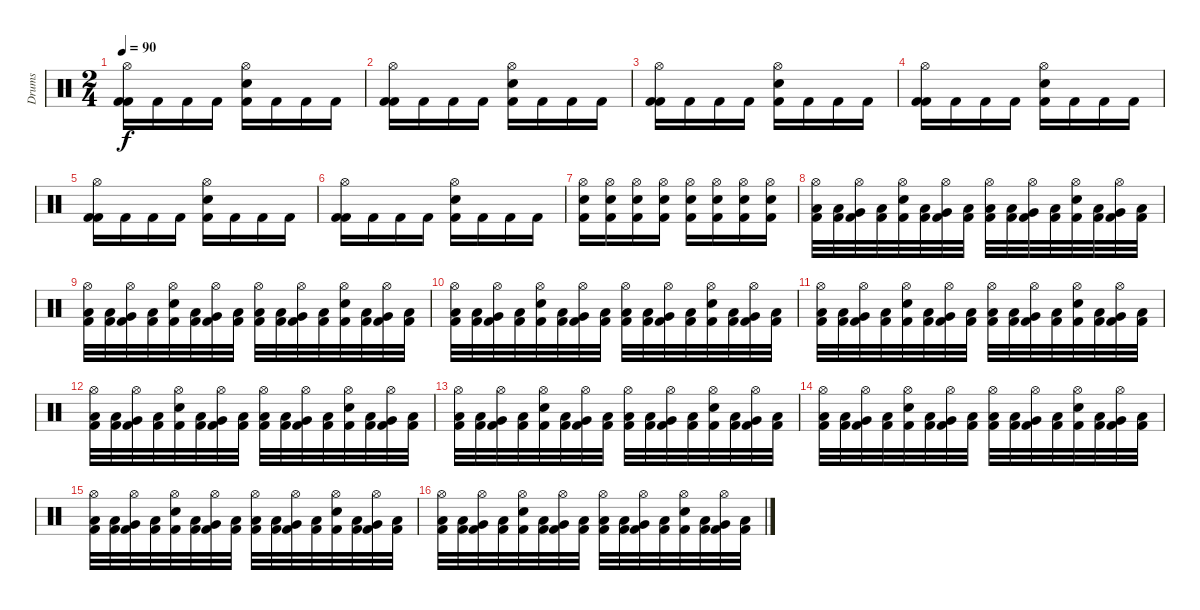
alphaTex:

\track ("Drums" "Drums") {instrument percussion}
\staff {score}
\articulation defaults
\ts (2 4)
\tempo 90
\clef neutral
\ks c
("Hi-Hat (open)" "Kick (hit) 2" "Kick (hit) 2").16{dy f} "Kick (hit) 2".16 "Kick (hit) 2".16 "Kick (hit) 2".16 ("Hi-Hat (open)" "Electric Snare (hit)" "Kick (hit) 2").16 "Kick (hit) 2".16 "Kick (hit) 2".16 "Kick (hit) 2".16 |
("Hi-Hat (open)" "Kick (hit) 2" "Kick (hit) 2").16 "Kick (hit) 2".16 "Kick (hit) 2".16 "Kick (hit) 2".16 ("Hi-Hat (open)" "Electric Snare (hit)" "Kick (hit) 2").16 "Kick (hit) 2".16 "Kick (hit) 2".16 "Kick (hit) 2".16 |
("Hi-Hat (open)" "Kick (hit) 2" "Kick (hit) 2").16 "Kick (hit) 2".16 "Kick (hit) 2".16 "Kick (hit) 2".16 ("Hi-Hat (open)" "Electric Snare (hit)" "Kick (hit) 2").16 "Kick (hit) 2".16 "Kick (hit) 2".16 "Kick (hit) 2".16 |
("Hi-Hat (open)" "Kick (hit) 2" "Kick (hit) 2").16 "Kick (hit) 2".16 "Kick (hit) 2".16 "Kick (hit) 2".16 ("Hi-Hat (open)" "Electric Snare (hit)" "Kick (hit) 2").16 "Kick (hit) 2".16 "Kick (hit) 2".16 "Kick (hit) 2".16 |
("Hi-Hat (open)" "Kick (hit) 2" "Kick (hit) 2").16 "Kick (hit) 2".16 "Kick (hit) 2".16 "Kick (hit) 2".16 ("Hi-Hat (open)" "Electric Snare (hit)" "Kick (hit) 2").16 "Kick (hit) 2".16 "Kick (hit) 2".16 "Kick (hit) 2".16 |
("Hi-Hat (open)" "Kick (hit) 2" "Kick (hit) 2").16 "Kick (hit) 2".16 "Kick (hit) 2".16 "Kick (hit) 2".16 ("Hi-Hat (open)" "Electric Snare (hit)" "Kick (hit) 2").16 "Kick (hit) 2".16 "Kick (hit) 2".16 "Kick (hit) 2".16 |
("Hi-Hat (open)" "Electric Snare (hit)" "Kick (hit) 2").16 ("Hi-Hat (open)" "Electric Snare (hit)" "Kick (hit) 2").16 ("Hi-Hat (open)" "Electric Snare (hit)" "Kick (hit) 2").16 ("Hi-Hat (open)" "Electric Snare (hit)" "Kick (hit) 2").16 ("Hi-Hat (open)" "Electric Snare (hit)" "Kick (hit) 2").16 ("Hi-Hat (open)" "Electric Snare (hit)" "Kick (hit) 2").16 ("Hi-Hat (open)" "Electric Snare (hit)" "Kick (hit) 2").16 ("Hi-Hat (open)" "Electric Snare (hit)" "Kick (hit) 2").16 |
("Hi-Hat (open)" "Low Floor Tom (hit)" "Kick (hit) 2").32 ("Low Tom (hit)" "Kick (hit) 2").32 ("Hi-Hat (open)" "Very Low Tom (hit)" "Kick (hit) 2").32 ("Low Floor Tom (hit)" "Kick (hit) 2").32 ("Hi-Hat (open)" "Snare (hit) 2" "Kick (hit) 2").32 ("Low Tom (hit)" "Kick (hit) 2").32 ("Hi-Hat (open)" "Very Low Tom (hit)" "Kick (hit) 2").32 ("Low Floor Tom (hit)" "Kick (hit) 2").32 ("Hi-Hat (open)" "Low Floor Tom (hit)" "Kick (hit) 2").32 ("Low Tom (hit)" "Kick (hit) 2").32 ("Hi-Hat (open)" "Very Low Tom (hit)" "Kick (hit) 2").32 ("Low Floor Tom (hit)" "Kick (hit) 2").32 ("Hi-Hat (open)" "Snare (hit) 2" "Kick (hit) 2").32 ("Low Tom (hit)" "Kick (hit) 2").32 ("Hi-Hat (open)" "Very Low Tom (hit)" "Kick (hit) 2").32 ("Low Floor Tom (hit)" "Kick (hit) 2").32 |
("Hi-Hat (open)" "Low Floor Tom (hit)" "Kick (hit) 2").32 ("Low Tom (hit)" "Kick (hit) 2").32 ("Hi-Hat (open)" "Very Low Tom (hit)" "Kick (hit) 2").32 ("Low Floor Tom (hit)" "Kick (hit) 2").32 ("Hi-Hat (open)" "Snare (hit) 2" "Kick (hit) 2").32 ("Low Tom (hit)" "Kick (hit) 2").32 ("Hi-Hat (open)" "Very Low Tom (hit)" "Kick (hit) 2").32 ("Low Floor Tom (hit)" "Kick (hit) 2").32 ("Hi-Hat (open)" "Low Floor Tom (hit)" "Kick (hit) 2").32 ("Low Tom (hit)" "Kick (hit) 2").32 ("Hi-Hat (open)" "Very Low Tom (hit)" "Kick (hit) 2").32 ("Low Floor Tom (hit)" "Kick (hit) 2").32 ("Hi-Hat (open)" "Snare (hit) 2" "Kick (hit) 2").32 ("Low Tom (hit)" "Kick (hit) 2").32 ("Hi-Hat (open)" "Very Low Tom (hit)" "Kick (hit) 2").32 ("Low Floor Tom (hit)" "Kick (hit) 2").32 |
("Hi-Hat (open)" "Low Floor Tom (hit)" "Kick (hit) 2").32 ("Low Tom (hit)" "Kick (hit) 2").32 ("Hi-Hat (open)" "Very Low Tom (hit)" "Kick (hit) 2").32 ("Low Floor Tom (hit)" "Kick (hit) 2").32 ("Hi-Hat (open)" "Snare (hit) 2" "Kick (hit) 2").32 ("Low Tom (hit)" "Kick (hit) 2").32 ("Hi-Hat (open)" "Very Low Tom (hit)" "Kick (hit) 2").32 ("Low Floor Tom (hit)" "Kick (hit) 2").32 ("Hi-Hat (open)" "Low Floor Tom (hit)" "Kick (hit) 2").32 ("Low Tom (hit)" "Kick (hit) 2").32 ("Hi-Hat (open)" "Very Low Tom (hit)" "Kick (hit) 2").32 ("Low Floor Tom (hit)" "Kick (hit) 2").32 ("Hi-Hat (open)" "Snare (hit) 2" "Kick (hit) 2").32 ("Low Tom (hit)" "Kick (hit) 2").32 ("Hi-Hat (open)" "Very Low Tom (hit)" "Kick (hit) 2").32 ("Low Floor Tom (hit)" "Kick (hit) 2").32 |
("Hi-Hat (open)" "Low Floor Tom (hit)" "Kick (hit) 2").32 ("Low Tom (hit)" "Kick (hit) 2").32 ("Hi-Hat (open)" "Very Low Tom (hit)" "Kick (hit) 2").32 ("Low Floor Tom (hit)" "Kick (hit) 2").32 ("Hi-Hat (open)" "Snare (hit) 2" "Kick (hit) 2").32 ("Low Tom (hit)" "Kick (hit) 2").32 ("Hi-Hat (open)" "Very Low Tom (hit)" "Kick (hit) 2").32 ("Low Floor Tom (hit)" "Kick (hit) 2").32 ("Hi-Hat (open)" "Low Floor Tom (hit)" "Kick (hit) 2").32 ("Low Tom (hit)" "Kick (hit) 2").32 ("Hi-Hat (open)" "Very Low Tom (hit)" "Kick (hit) 2").32 ("Low Floor Tom (hit)" "Kick (hit) 2").32 ("Hi-Hat (open)" "Snare (hit) 2" "Kick (hit) 2").32 ("Low Tom (hit)" "Kick (hit) 2").32 ("Hi-Hat (open)" "Very Low Tom (hit)" "Kick (hit) 2").32 ("Low Floor Tom (hit)" "Kick (hit) 2").32 |
("Hi-Hat (open)" "Low Floor Tom (hit)" "Kick (hit) 2").32 ("Low Tom (hit)" "Kick (hit) 2").32 ("Hi-Hat (open)" "Very Low Tom (hit)" "Kick (hit) 2").32 ("Low Floor Tom (hit)" "Kick (hit) 2").32 ("Hi-Hat (open)" "Snare (hit) 2" "Kick (hit) 2").32 ("Low Tom (hit)" "Kick (hit) 2").32 ("Hi-Hat (open)" "Very Low Tom (hit)" "Kick (hit) 2").32 ("Low Floor Tom (hit)" "Kick (hit) 2").32 ("Hi-Hat (open)" "Low Floor Tom (hit)" "Kick (hit) 2").32 ("Low Tom (hit)" "Kick (hit) 2").32 ("Hi-Hat (open)" "Very Low Tom (hit)" "Kick (hit) 2").32 ("Low Floor Tom (hit)" "Kick (hit) 2").32 ("Hi-Hat (open)" "Snare (hit) 2" "Kick (hit) 2").32 ("Low Tom (hit)" "Kick (hit) 2").32 ("Hi-Hat (open)" "Very Low Tom (hit)" "Kick (hit) 2").32 ("Low Floor Tom (hit)" "Kick (hit) 2").32 |
("Hi-Hat (open)" "Low Floor Tom (hit)" "Kick (hit) 2").32 ("Low Tom (hit)" "Kick (hit) 2").32 ("Hi-Hat (open)" "Very Low Tom (hit)" "Kick (hit) 2").32 ("Low Floor Tom (hit)" "Kick (hit) 2").32 ("Hi-Hat (open)" "Snare (hit) 2" "Kick (hit) 2").32 ("Low Tom (hit)" "Kick (hit) 2").32 ("Hi-Hat (open)" "Very Low Tom (hit)" "Kick (hit) 2").32 ("Low Floor Tom (hit)" "Kick (hit) 2").32 ("Hi-Hat (open)" "Low Floor Tom (hit)" "Kick (hit) 2").32 ("Low Tom (hit)" "Kick (hit) 2").32 ("Hi-Hat (open)" "Very Low Tom (hit)" "Kick (hit) 2").32 ("Low Floor Tom (hit)" "Kick (hit) 2").32 ("Hi-Hat (open)" "Snare (hit) 2" "Kick (hit) 2").32 ("Low Tom (hit)" "Kick (hit) 2").32 ("Hi-Hat (open)" "Very Low Tom (hit)" "Kick (hit) 2").32 ("Low Floor Tom (hit)" "Kick (hit) 2").32 |
("Hi-Hat (open)" "Low Floor Tom (hit)" "Kick (hit) 2").32 ("Low Tom (hit)" "Kick (hit) 2").32 ("Hi-Hat (open)" "Very Low Tom (hit)" "Kick (hit) 2").32 ("Low Floor Tom (hit)" "Kick (hit) 2").32 ("Hi-Hat (open)" "Snare (hit) 2" "Kick (hit) 2").32 ("Low Tom (hit)" "Kick (hit) 2").32 ("Hi-Hat (open)" "Very Low Tom (hit)" "Kick (hit) 2").32 ("Low Floor Tom (hit)" "Kick (hit) 2").32 ("Hi-Hat (open)" "Low Floor Tom (hit)" "Kick (hit) 2").32 ("Low Tom (hit)" "Kick (hit) 2").32 ("Hi-Hat (open)" "Very Low Tom (hit)" "Kick (hit) 2").32 ("Low Floor Tom (hit)" "Kick (hit) 2").32 ("Hi-Hat (open)" "Snare (hit) 2" "Kick (hit) 2").32 ("Low Tom (hit)" "Kick (hit) 2").32 ("Hi-Hat (open)" "Very Low Tom (hit)" "Kick (hit) 2").32 ("Low Floor Tom (hit)" "Kick (hit) 2").32 |
("Hi-Hat (open)" "Low Floor Tom (hit)" "Kick (hit) 2").32 ("Low Tom (hit)" "Kick (hit) 2").32 ("Hi-Hat (open)" "Very Low Tom (hit)" "Kick (hit) 2").32 ("Low Floor Tom (hit)" "Kick (hit) 2").32 ("Hi-Hat (open)" "Snare (hit) 2" "Kick (hit) 2").32 ("Low Tom (hit)" "Kick (hit) 2").32 ("Hi-Hat (open)" "Very Low Tom (hit)" "Kick (hit) 2").32 ("Low Floor Tom (hit)" "Kick (hit) 2").32 ("Hi-Hat (open)" "Low Floor Tom (hit)" "Kick (hit) 2").32 ("Low Tom (hit)" "Kick (hit) 2").32 ("Hi-Hat (open)" "Very Low Tom (hit)" "Kick (hit) 2").32 ("Low Floor Tom (hit)" "Kick (hit) 2").32 ("Hi-Hat (open)" "Snare (hit) 2" "Kick (hit) 2").32 ("Low Tom (hit)" "Kick (hit) 2").32 ("Hi-Hat (open)" "Very Low Tom (hit)" "Kick (hit) 2").32 ("Low Floor Tom (hit)" "Kick (hit) 2").32 |
("Hi-Hat (open)" "Low Floor Tom (hit)" "Kick (hit) 2").32 ("Low Tom (hit)" "Kick (hit) 2").32 ("Hi-Hat (open)" "Very Low Tom (hit)" "Kick (hit) 2").32 ("Low Floor Tom (hit)" "Kick (hit) 2").32 ("Hi-Hat (open)" "Snare (hit) 2" "Kick (hit) 2").32 ("Low Tom (hit)" "Kick (hit) 2").32 ("Hi-Hat (open)" "Very Low Tom (hit)" "Kick (hit) 2").32 ("Low Floor Tom (hit)" "Kick (hit) 2").32 ("Hi-Hat (open)" "Low Floor Tom (hit)" "Kick (hit) 2").32 ("Low Tom (hit)" "Kick (hit) 2").32 ("Hi-Hat (open)" "Very Low Tom (hit)" "Kick (hit) 2").32 ("Low Floor Tom (hit)" "Kick (hit) 2").32 ("Hi-Hat (open)" "Snare (hit) 2" "Kick (hit) 2").32 ("Low Tom (hit)" "Kick (hit) 2").32 ("Hi-Hat (open)" "Very Low Tom (hit)" "Kick (hit) 2").32 ("Low Floor Tom (hit)" "Kick (hit) 2").32
